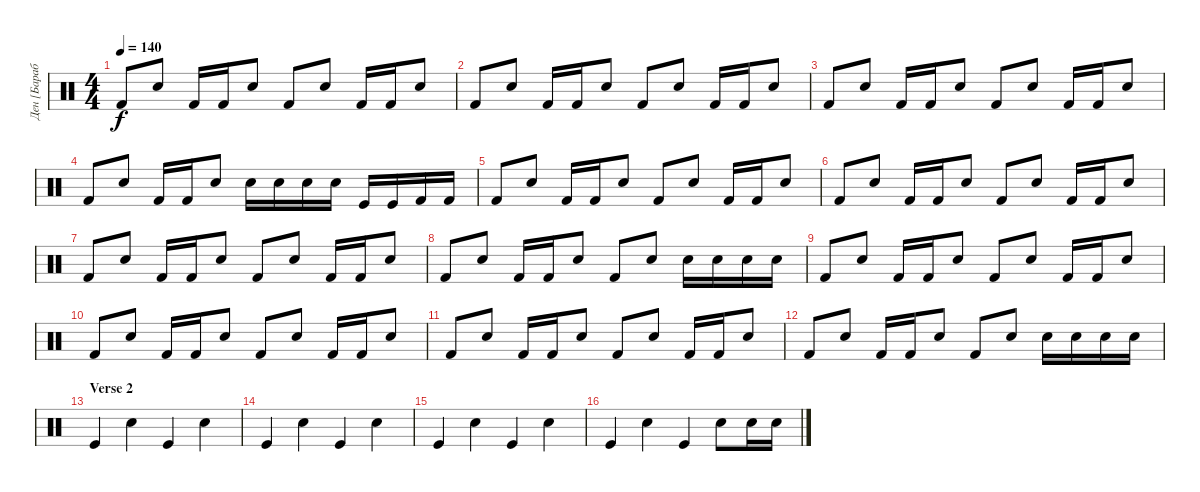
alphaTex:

\track ("Ден [Барабаны]" "Ден [Бараб") {instrument percussion}
\staff {score}
\articulation defaults
\ts (4 4)
\tempo 140
\clef neutral
\ks c "Kick (hit) 2".8{dy f} "Electric Snare (hit)".8 "Kick (hit) 2".16 "Kick (hit) 2".16 "Electric Snare (hit)".8 "Kick (hit) 2".8 "Electric Snare (hit)".8 "Kick (hit) 2".16 "Kick (hit) 2".16 "Electric Snare (hit)".8
|
"Kick (hit) 2".8 "Electric Snare (hit)".8 "Kick (hit) 2".16 "Kick (hit) 2".16 "Electric Snare (hit)".8 "Kick (hit) 2".8 "Electric Snare (hit)".8 "Kick (hit) 2".16 "Kick (hit) 2".16 "Electric Snare (hit)".8 |
"Kick (hit) 2".8 "Electric Snare (hit)".8 "Kick (hit) 2".16 "Kick (hit) 2".16 "Electric Snare (hit)".8 "Kick (hit) 2".8 "Electric Snare (hit)".8 "Kick (hit) 2".16 "Kick (hit) 2".16 "Electric Snare (hit)".8 |
"Kick (hit) 2".8 "Electric Snare (hit)".8 "Kick (hit) 2".16 "Kick (hit) 2".16 "Electric Snare (hit)".8 "Electric Snare (hit)".16 "Electric Snare (hit)".16 "Electric Snare (hit)".16 "Electric Snare (hit)".16 "Kick (hit)".16 "Kick (hit)".16 "Kick (hit) 2".16 "Kick (hit) 2".16 |
"Kick (hit) 2".8 "Electric Snare (hit)".8 "Kick (hit) 2".16 "Kick (hit) 2".16 "Electric Snare (hit)".8 "Kick (hit) 2".8 "Electric Snare (hit)".8 "Kick (hit) 2".16 "Kick (hit) 2".16 "Electric Snare (hit)".8 |
"Kick (hit) 2".8 "Electric Snare (hit)".8 "Kick (hit) 2".16 "Kick (hit) 2".16 "Electric Snare (hit)".8 "Kick (hit) 2".8 "Electric Snare (hit)".8 "Kick (hit) 2".16 "Kick (hit) 2".16 "Electric Snare (hit)".8 |
"Kick (hit) 2".8 "Electric Snare (hit)".8 "Kick (hit) 2".16 "Kick (hit) 2".16 "Electric Snare (hit)".8 "Kick (hit) 2".8 "Electric Snare (hit)".8 "Kick (hit) 2".16 "Kick (hit) 2".16 "Electric Snare (hit)".8 |
"Kick (hit) 2".8 "Electric Snare (hit)".8 "Kick (hit) 2".16 "Kick (hit) 2".16 "Electric Snare (hit)".8 "Kick (hit) 2".8 "Electric Snare (hit)".8 "Electric Snare (hit)".16 "Electric Snare (hit)".16 "Electric Snare (hit)".16 "Electric Snare (hit)".16 |
"Kick (hit) 2".8 "Electric Snare (hit)".8 "Kick (hit) 2".16 "Kick (hit) 2".16 "Electric Snare (hit)".8 "Kick (hit) 2".8 "Electric Snare (hit)".8 "Kick (hit) 2".16 "Kick (hit) 2".16 "Electric Snare (hit)".8 |
"Kick (hit) 2".8 "Electric Snare (hit)".8 "Kick (hit) 2".16 "Kick (hit) 2".16 "Electric Snare (hit)".8 "Kick (hit) 2".8 "Electric Snare (hit)".8 "Kick (hit) 2".16 "Kick (hit) 2".16 "Electric Snare (hit)".8 |
"Kick (hit) 2".8 "Electric Snare (hit)".8 "Kick (hit) 2".16 "Kick (hit) 2".16 "Electric Snare (hit)".8 "Kick (hit) 2".8 "Electric Snare (hit)".8 "Kick (hit) 2".16 "Kick (hit) 2".16 "Electric Snare (hit)".8 |
"Kick (hit) 2".8 "Electric Snare (hit)".8 "Kick (hit) 2".16 "Kick (hit) 2".16 "Electric Snare (hit)".8 "Kick (hit) 2".8 "Electric Snare (hit)".8 "Electric Snare (hit)".16 "Electric Snare (hit)".16 "Electric Snare (hit)".16 "Electric Snare (hit)".16 |
\section ("" "Verse 2")
"Kick (hit)".4 "Electric Snare (hit)".4 "Kick (hit)".4 "Electric Snare (hit)".4 |
"Kick (hit)".4 "Electric Snare (hit)".4 "Kick (hit)".4 "Electric Snare (hit)".4 |
"Kick (hit)".4 "Electric Snare (hit)".4 "Kick (hit)".4 "Electric Snare (hit)".4 |
"Kick (hit)".4 "Electric Snare (hit)".4 "Kick (hit)".4 "Electric Snare (hit)".8 "Electric Snare (hit)".16 "Electric Snare (hit)".16
